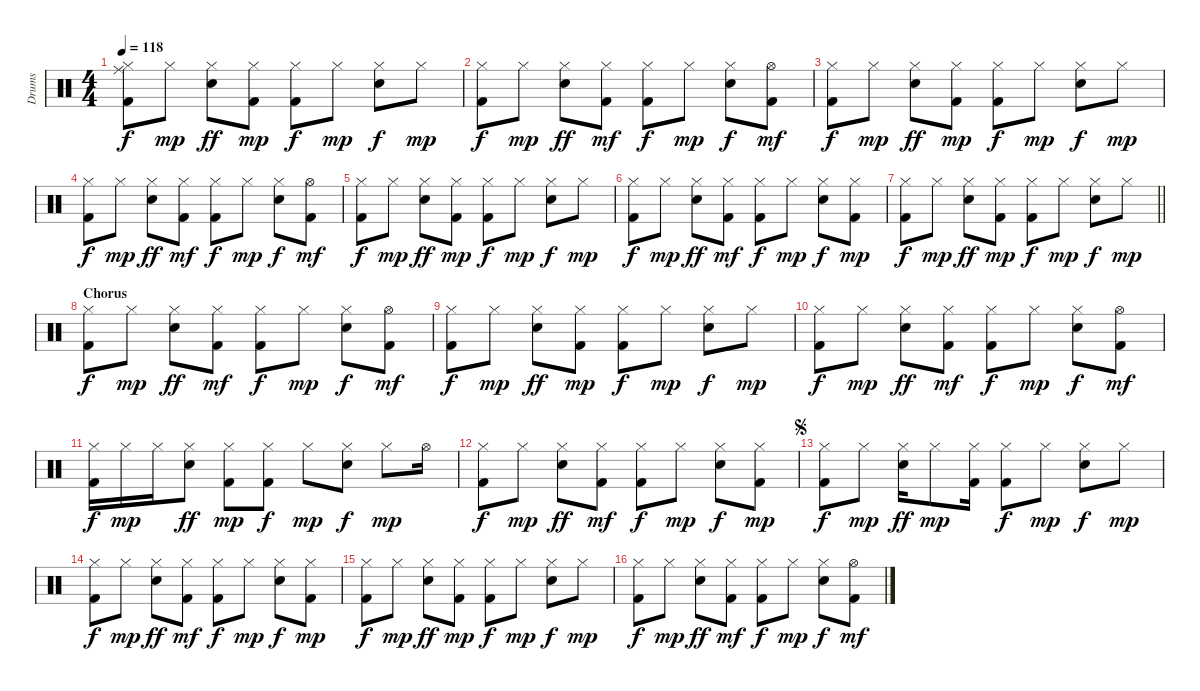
\track ("Drums" "Drums") {instrument percussion}
\staff {score}
\articulation defaults
\ts (4 4)
\tempo 118
\clef neutral
\ks c
("Kick (hit) 2" "Hi-Hat (closed)" "Ride (middle)").8{dy f} "Hi-Hat (closed)".8{dy mp} ("Snare (hit) 2" "Hi-Hat (closed)").8{dy ff} ("Kick (hit) 2" "Hi-Hat (closed)").8{dy mp} ("Kick (hit) 2" "Hi-Hat (closed)").8{dy f} "Hi-Hat (closed)".8{dy mp} ("Snare (hit) 2" "Hi-Hat (closed)").8{dy f} "Hi-Hat (closed)".8{dy mp} |
("Kick (hit) 2" "Hi-Hat (closed)").8{dy f} "Hi-Hat (closed)".8{dy mp} ("Snare (hit) 2" "Hi-Hat (closed)").8{dy ff} ("Kick (hit) 2" "Hi-Hat (closed)").8{dy mf} ("Kick (hit) 2" "Hi-Hat (closed)").8{dy f} "Hi-Hat (closed)".8{dy mp} ("Snare (hit) 2" "Hi-Hat (closed)").8{dy f} ("Kick (hit) 2" "Hi-Hat (open)").8{dy mf} |
("Kick (hit) 2" "Hi-Hat (closed)").8{dy f} "Hi-Hat (closed)".8{dy mp} ("Snare (hit) 2" "Hi-Hat (closed)").8{dy ff} ("Kick (hit) 2" "Hi-Hat (closed)").8{dy mp} ("Kick (hit) 2" "Hi-Hat (closed)").8{dy f} "Hi-Hat (closed)".8{dy mp} ("Snare (hit) 2" "Hi-Hat (closed)").8{dy f} "Hi-Hat (closed)".8{dy mp} |
("Kick (hit) 2" "Hi-Hat (closed)").8{dy f} "Hi-Hat (closed)".8{dy mp} ("Snare (hit) 2" "Hi-Hat (closed)").8{dy ff} ("Kick (hit) 2" "Hi-Hat (closed)").8{dy mf} ("Kick (hit) 2" "Hi-Hat (closed)").8{dy f} "Hi-Hat (closed)".8{dy mp} ("Snare (hit) 2" "Hi-Hat (closed)").8{dy f} ("Kick (hit) 2" "Hi-Hat (open)").8{dy mf} |
("Kick (hit) 2" "Hi-Hat (closed)").8{dy f} "Hi-Hat (closed)".8{dy mp} ("Snare (hit) 2" "Hi-Hat (closed)").8{dy ff} ("Kick (hit) 2" "Hi-Hat (closed)").8{dy mp} ("Kick (hit) 2" "Hi-Hat (closed)").8{dy f} "Hi-Hat (closed)".8{dy mp} ("Snare (hit) 2" "Hi-Hat (closed)").8{dy f} "Hi-Hat (closed)".8{dy mp} |
("Kick (hit) 2" "Hi-Hat (closed)").8{dy f} "Hi-Hat (closed)".8{dy mp} ("Snare (hit) 2" "Hi-Hat (closed)").8{dy ff} ("Kick (hit) 2" "Hi-Hat (closed)").8{dy mf} ("Kick (hit) 2" "Hi-Hat (closed)").8{dy f} "Hi-Hat (closed)".8{dy mp} ("Snare (hit) 2" "Hi-Hat (closed)").8{dy f} ("Kick (hit) 2" "Hi-Hat (closed)").8{dy mp} |
\barLineRight lightlight
("Kick (hit) 2" "Hi-Hat (closed)").8{dy f} "Hi-Hat (closed)".8{dy mp} ("Snare (hit) 2" "Hi-Hat (closed)").8{dy ff} ("Kick (hit) 2" "Hi-Hat (closed)").8{dy mp} ("Kick (hit) 2" "Hi-Hat (closed)").8{dy f} "Hi-Hat (closed)".8{dy mp} ("Snare (hit) 2" "Hi-Hat (closed)").8{dy f} "Hi-Hat (closed)".8{dy mp} |
\section ("" "Chorus")
("Kick (hit) 2" "Hi-Hat (closed)").8{dy f} "Hi-Hat (closed)".8{dy mp} ("Snare (hit) 2" "Hi-Hat (closed)").8{dy ff} ("Kick (hit) 2" "Hi-Hat (closed)").8{dy mf} ("Kick (hit) 2" "Hi-Hat (closed)").8{dy f} "Hi-Hat (closed)".8{dy mp} ("Snare (hit) 2" "Hi-Hat (closed)").8{dy f} ("Kick (hit) 2" "Hi-Hat (open)").8{dy mf} |
("Kick (hit) 2" "Hi-Hat (closed)").8{dy f} "Hi-Hat (closed)".8{dy mp} ("Snare (hit) 2" "Hi-Hat (closed)").8{dy ff} ("Kick (hit) 2" "Hi-Hat (closed)").8{dy mp} ("Kick (hit) 2" "Hi-Hat (closed)").8{dy f} "Hi-Hat (closed)".8{dy mp} ("Snare (hit) 2" "Hi-Hat (closed)").8{dy f} "Hi-Hat (closed)".8{dy mp} |
("Kick (hit) 2" "Hi-Hat (closed)").8{dy f} "Hi-Hat (closed)".8{dy mp} ("Snare (hit) 2" "Hi-Hat (closed)").8{dy ff} ("Kick (hit) 2" "Hi-Hat (closed)").8{dy mf} ("Kick (hit) 2" "Hi-Hat (closed)").8{dy f} "Hi-Hat (closed)".8{dy mp} ("Snare (hit) 2" "Hi-Hat (closed)").8{dy f} ("Kick (hit) 2" "Hi-Hat (open)").8{dy mf} |
("Kick (hit) 2" "Hi-Hat (closed)").16{dy f} "Hi-Hat (closed)".16{dy mp} "Hi-Hat (closed)".16 ("Snare (hit) 2" "Hi-Hat (closed)").8{dy ff} ("Kick (hit) 2" "Hi-Hat (closed)").8{dy mp} ("Kick (hit) 2" "Hi-Hat (closed)").8{dy f} "Hi-Hat (closed)".8{dy mp} ("Snare (hit) 2" "Hi-Hat (closed)").8{dy f} "Hi-Hat (closed)".8{dy mp} "Hi-Hat (open)".16 |
("Kick (hit) 2" "Hi-Hat (closed)").8{dy f} "Hi-Hat (closed)".8{dy mp} ("Snare (hit) 2" "Hi-Hat (closed)").8{dy ff} ("Kick (hit) 2" "Hi-Hat (closed)").8{dy mf} ("Kick (hit) 2" "Hi-Hat (closed)").8{dy f} "Hi-Hat (closed)".8{dy mp} ("Snare (hit) 2" "Hi-Hat (closed)").8{dy f} ("Kick (hit) 2" "Hi-Hat (closed)").8{dy mp} |
\jump segno
("Kick (hit) 2" "Hi-Hat (closed)").8{dy f} "Hi-Hat (closed)".8{dy mp} ("Snare (hit) 2" "Hi-Hat (closed)").16{dy ff} "Hi-Hat (closed)".8{dy mp} ("Kick (hit) 2" "Hi-Hat (closed)").16 ("Kick (hit) 2" "Hi-Hat (closed)").8{dy f} "Hi-Hat (closed)".8{dy mp} ("Snare (hit) 2" "Hi-Hat (closed)").8{dy f} "Hi-Hat (closed)".8{dy mp} |
("Kick (hit) 2" "Hi-Hat (closed)").8{dy f} "Hi-Hat (closed)".8{dy mp} ("Snare (hit) 2" "Hi-Hat (closed)").8{dy ff} ("Kick (hit) 2" "Hi-Hat (closed)").8{dy mf} ("Kick (hit) 2" "Hi-Hat (closed)").8{dy f} "Hi-Hat (closed)".8{dy mp} ("Snare (hit) 2" "Hi-Hat (closed)").8{dy f} ("Kick (hit) 2" "Hi-Hat (closed)").8{dy mp} |
("Kick (hit) 2" "Hi-Hat (closed)").8{dy f} "Hi-Hat (closed)".8{dy mp} ("Snare (hit) 2" "Hi-Hat (closed)").8{dy ff} ("Kick (hit) 2" "Hi-Hat (closed)").8{dy mp} ("Kick (hit) 2" "Hi-Hat (closed)").8{dy f} "Hi-Hat (closed)".8{dy mp} ("Snare (hit) 2" "Hi-Hat (closed)").8{dy f} "Hi-Hat (closed)".8{dy mp} |
("Kick (hit) 2" "Hi-Hat (closed)").8{dy f} "Hi-Hat (closed)".8{dy mp} ("Snare (hit) 2" "Hi-Hat (closed)").8{dy ff} ("Kick (hit) 2" "Hi-Hat (closed)").8{dy mf} ("Kick (hit) 2" "Hi-Hat (closed)").8{dy f} "Hi-Hat (closed)".8{dy mp} ("Snare (hit) 2" "Hi-Hat (closed)").8{dy f} ("Kick (hit) 2" "Hi-Hat (open)").8{dy mf}
